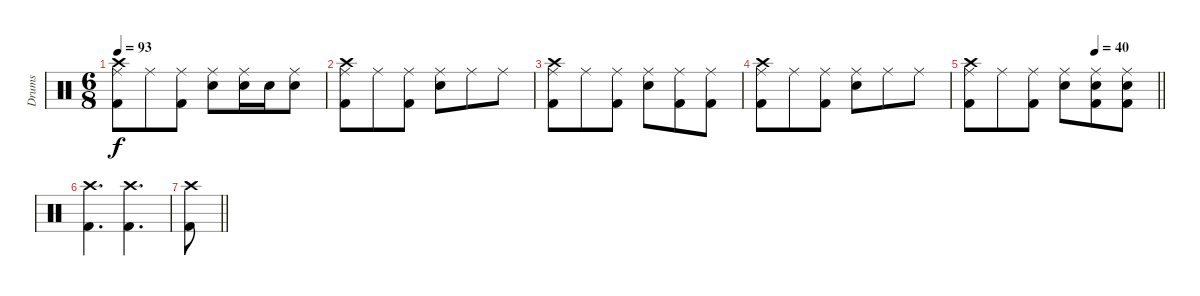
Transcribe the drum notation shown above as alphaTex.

\track ("Drums" "Drums") {instrument percussion}
\staff {score}
\articulation defaults
\ts (6 8)
\tempo 93
\clef neutral
\ks c
("Crash high (hit)" "Ride (middle)" "Kick (hit) 2").8{dy f} "Ride (middle)".8 ("Ride (middle)" "Kick (hit) 2").8 ("Ride (middle)" "Snare (hit) 2").8 ("Ride (middle)" "Snare (hit) 2").16 "Snare (hit) 2".16 ("Ride (middle)" "Snare (hit) 2").8 |
("Crash high (hit)" "Ride (middle)" "Kick (hit) 2").8 "Ride (middle)".8 ("Ride (middle)" "Kick (hit) 2").8 ("Ride (middle)" "Snare (hit) 2").8 "Ride (middle)".8 "Ride (middle)".8 |
("Crash high (hit)" "Ride (middle)" "Kick (hit) 2").8 "Ride (middle)".8 ("Ride (middle)" "Kick (hit) 2").8 ("Ride (middle)" "Snare (hit) 2").8 ("Ride (middle)" "Kick (hit) 2").8 ("Ride (middle)" "Kick (hit) 2").8 |
("Crash high (hit)" "Ride (middle)" "Kick (hit) 2").8 "Ride (middle)".8 ("Ride (middle)" "Kick (hit) 2").8 ("Ride (middle)" "Snare (hit) 2").8 "Ride (middle)".8 "Ride (middle)".8 |
\tempo (40 0.6666666666666666)
\barLineRight lightlight
("Crash high (hit)" "Ride (middle)" "Kick (hit) 2").8 "Ride (middle)".8 ("Ride (middle)" "Kick (hit) 2").8 ("Ride (middle)" "Snare (hit) 2").8 ("Ride (middle)" "Snare (hit) 2" "Kick (hit) 2").8 ("Ride (middle)" "Snare (hit) 2" "Kick (hit) 2").8 |
("Crash high (hit)" "Kick (hit) 2").4{d} ("Crash high (hit)" "Kick (hit) 2").4{d} |
\barLineRight lightlight
("Crash high (hit)" "Kick (hit) 2").8
